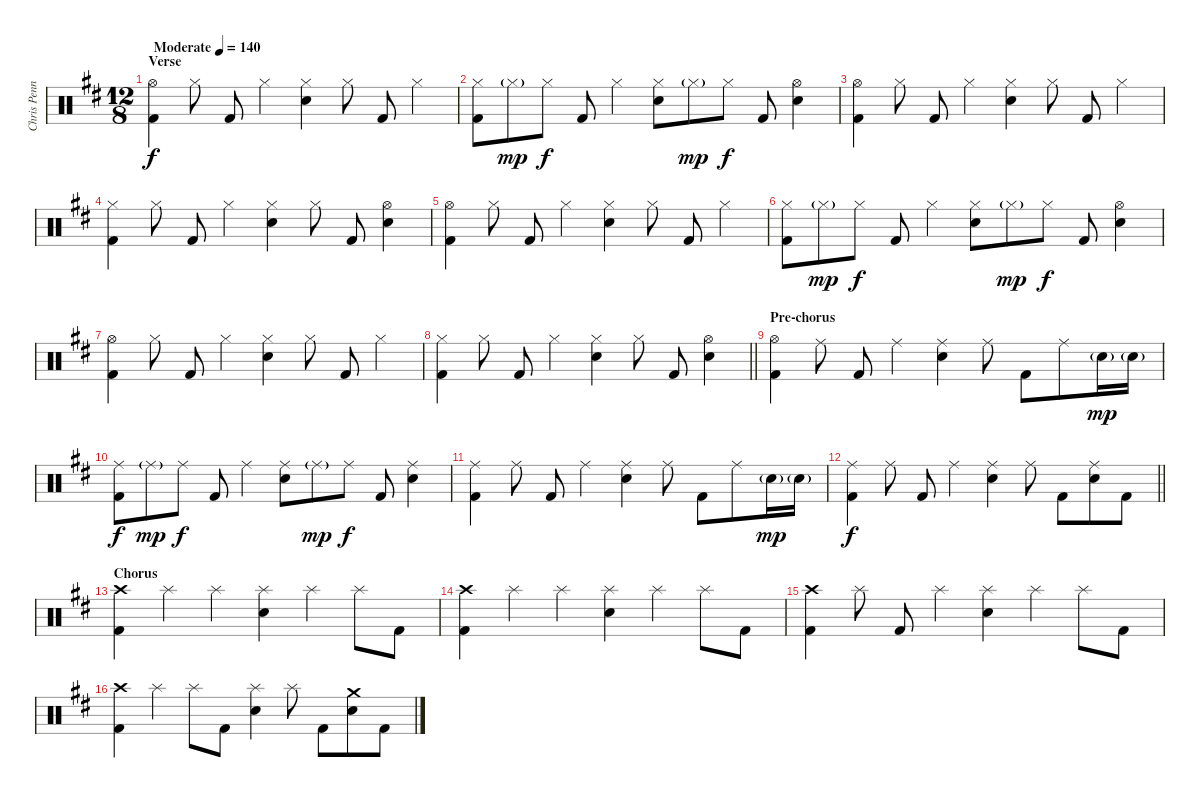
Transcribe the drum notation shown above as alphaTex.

\track ("Chris Pennie/Taylor Hawkins - Drums" "Chris Penn") {instrument percussion}
\staff {score}
\articulation defaults
\ts (12 8)
\section ("" "Verse")
\tempo (140 "Moderate")
\clef neutral
\ks bminor
("Hi-Hat (open)" "Kick (hit) 2").4{dy f} "Hi-Hat (closed)".8 "Kick (hit) 2".8 "Hi-Hat (closed)".4 ("Hi-Hat (closed)" "Electric Snare (hit)").4 "Hi-Hat (closed)".8 "Kick (hit) 2".8 "Hi-Hat (closed)".4 |
("Hi-Hat (closed)" "Kick (hit) 2").8 "Hi-Hat (closed)"{g}.8{dy mp} "Hi-Hat (closed)".8{dy f} "Kick (hit) 2".8 "Hi-Hat (closed)".4 ("Hi-Hat (closed)" "Electric Snare (hit)").8 "Hi-Hat (closed)"{g}.8{dy mp} "Hi-Hat (closed)".8{dy f} "Kick (hit) 2".8 ("Hi-Hat (open)" "Electric Snare (hit)").4 |
("Hi-Hat (open)" "Kick (hit) 2").4 "Hi-Hat (closed)".8 "Kick (hit) 2".8 "Hi-Hat (closed)".4 ("Hi-Hat (closed)" "Electric Snare (hit)").4 "Hi-Hat (closed)".8 "Kick (hit) 2".8 "Hi-Hat (closed)".4 |
("Hi-Hat (closed)" "Kick (hit) 2").4 "Hi-Hat (closed)".8 "Kick (hit) 2".8 "Hi-Hat (closed)".4 ("Hi-Hat (closed)" "Electric Snare (hit)").4 "Hi-Hat (closed)".8 "Kick (hit) 2".8 ("Hi-Hat (open)" "Electric Snare (hit)").4 |
("Hi-Hat (open)" "Kick (hit) 2").4 "Hi-Hat (closed)".8 "Kick (hit) 2".8 "Hi-Hat (closed)".4 ("Hi-Hat (closed)" "Electric Snare (hit)").4 "Hi-Hat (closed)".8 "Kick (hit) 2".8 "Hi-Hat (closed)".4 |
("Hi-Hat (closed)" "Kick (hit) 2").8 "Hi-Hat (closed)"{g}.8{dy mp} "Hi-Hat (closed)".8{dy f} "Kick (hit) 2".8 "Hi-Hat (closed)".4 ("Hi-Hat (closed)" "Electric Snare (hit)").8 "Hi-Hat (closed)"{g}.8{dy mp} "Hi-Hat (closed)".8{dy f} "Kick (hit) 2".8 ("Hi-Hat (open)" "Electric Snare (hit)").4 |
("Hi-Hat (open)" "Kick (hit) 2").4 "Hi-Hat (closed)".8 "Kick (hit) 2".8 "Hi-Hat (closed)".4 ("Hi-Hat (closed)" "Electric Snare (hit)").4 "Hi-Hat (closed)".8 "Kick (hit) 2".8 "Hi-Hat (closed)".4 |
\barLineRight lightlight
("Hi-Hat (closed)" "Kick (hit) 2").4 "Hi-Hat (closed)".8 "Kick (hit) 2".8 "Hi-Hat (closed)".4 ("Hi-Hat (closed)" "Electric Snare (hit)").4 "Hi-Hat (closed)".8 "Kick (hit) 2".8 ("Hi-Hat (open)" "Electric Snare (hit)").4 |
\section ("" "Pre-chorus")
("Hi-Hat (open)" "Kick (hit) 2").4 "Ride (middle)".8 "Kick (hit) 2".8 "Ride (middle)".4 ("Ride (middle)" "Electric Snare (hit)").4 "Ride (middle)".8 "Kick (hit) 2".8 "Ride (middle)".8 "Electric Snare (hit)"{g}.16{dy mp} "Electric Snare (hit)"{g}.16 |
("Ride (middle)" "Kick (hit) 2").8{dy f} "Ride (middle)"{g}.8{dy mp} "Ride (middle)".8{dy f} "Kick (hit) 2".8 "Ride (middle)".4 ("Ride (middle)" "Electric Snare (hit)").8 "Ride (middle)"{g}.8{dy mp} "Ride (middle)".8{dy f} "Kick (hit) 2".8 ("Ride (middle)" "Electric Snare (hit)").4 |
("Ride (middle)" "Kick (hit) 2").4 "Ride (middle)".8 "Kick (hit) 2".8 "Ride (middle)".4 ("Ride (middle)" "Electric Snare (hit)").4 "Ride (middle)".8 "Kick (hit) 2".8 "Ride (middle)".8 "Electric Snare (hit)"{g}.16{dy mp} "Electric Snare (hit)"{g}.16 |
\barLineRight lightlight
("Ride (middle)" "Kick (hit) 2").4{dy f} "Ride (middle)".8 "Kick (hit) 2".8 "Ride (middle)".4 ("Ride (middle)" "Electric Snare (hit)").4 "Ride (middle)".8 "Kick (hit) 2".8 ("Ride (middle)" "Electric Snare (hit)").8 "Kick (hit) 2".8 |
\section ("" "Chorus")
("Crash high (hit)" "Kick (hit) 2").4 "Splash (hit)".4 "Splash (hit)".4 ("Splash (hit)" "Electric Snare (hit)").4 "Splash (hit)".4 "Splash (hit)".8 "Kick (hit) 2".8 |
("Crash high (hit)" "Kick (hit) 2").4 "Splash (hit)".4 "Splash (hit)".4 ("Splash (hit)" "Electric Snare (hit)").4 "Splash (hit)".4 "Splash (hit)".8 "Kick (hit) 2".8 |
("Crash high (hit)" "Kick (hit) 2").4 "Splash (hit)".8 "Kick (hit) 2".8 "Splash (hit)".4 ("Splash (hit)" "Electric Snare (hit)").4 "Splash (hit)".4 "Splash (hit)".8 "Kick (hit) 2".8 |
("Crash high (hit)" "Kick (hit) 2").4 "Splash (hit)".4 "Splash (hit)".8 "Kick (hit) 2".8 ("Splash (hit)" "Electric Snare (hit)").4 "Splash (hit)".8 "Kick (hit) 2".8 ("Crash medium (hit)" "Electric Snare (hit)").8 "Kick (hit) 2".8
